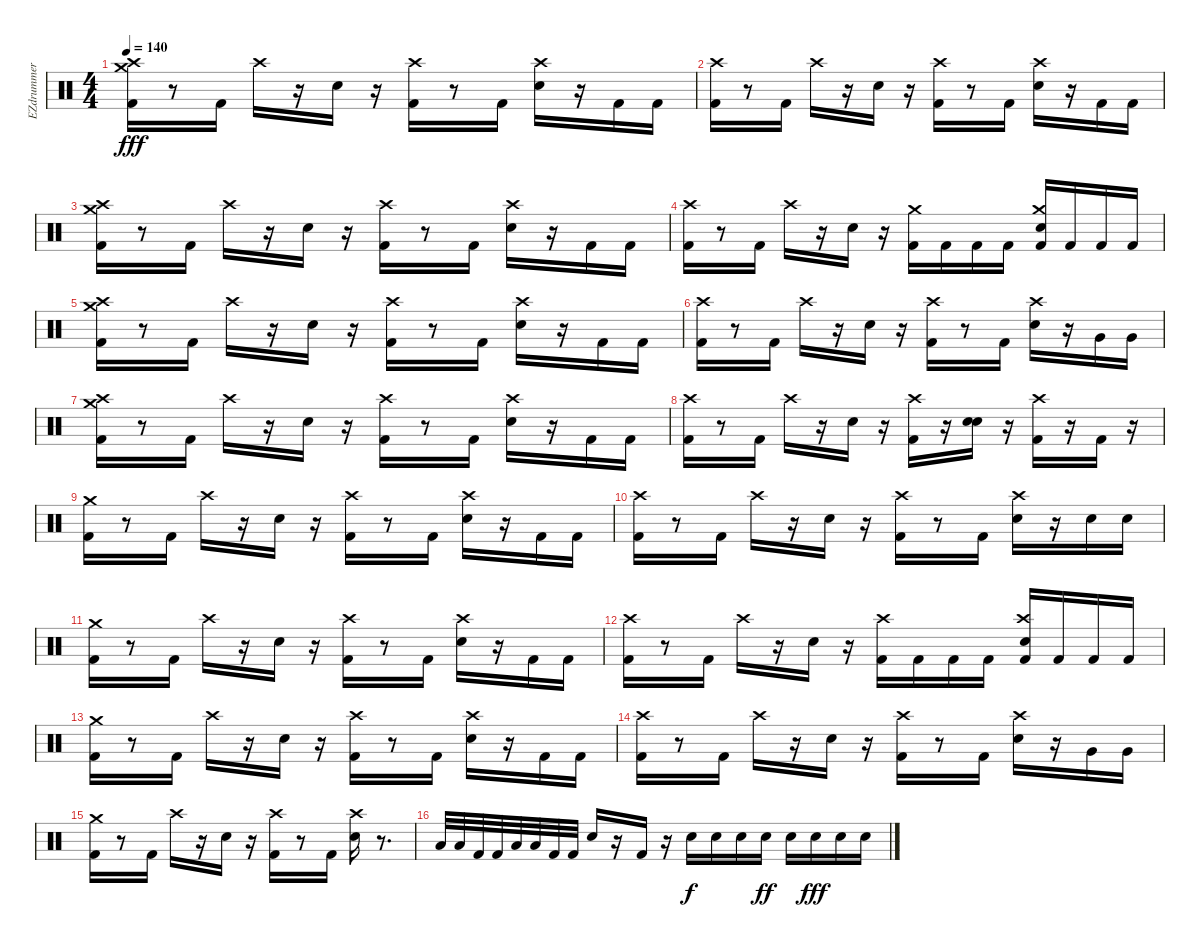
\track ("EZdrummer" "EZdrummer") {instrument percussion}
\staff {score}
\articulation defaults
\ts (4 4)
\tempo 140
\clef neutral
\ks c
("Kick (hit) 2" "Crash high (hit)" "Crash medium (hit)").16{dy fff} r.8 "Kick (hit) 2".16 "Crash high (hit)".16 r.16 "Snare (hit) 2".16 r.16 ("Kick (hit) 2" "Crash high (hit)").16 r.8 "Kick (hit) 2".16 ("Snare (hit) 2" "Crash high (hit)").16 r.16 "Kick (hit) 2".16 "Kick (hit) 2".16 |
("Kick (hit) 2" "Crash high (hit)").16 r.8 "Kick (hit) 2".16 "Crash high (hit)".16 r.16 "Snare (hit) 2".16 r.16 ("Kick (hit) 2" "Crash high (hit)").16 r.8 "Kick (hit) 2".16 ("Snare (hit) 2" "Crash high (hit)").16 r.16 "Kick (hit) 2".16 "Kick (hit) 2".16 |
("Kick (hit) 2" "Crash high (hit)" "Crash medium (hit)").16 r.8 "Kick (hit) 2".16 "Crash high (hit)".16 r.16 "Snare (hit) 2".16 r.16 ("Kick (hit) 2" "Crash high (hit)").16 r.8 "Kick (hit) 2".16 ("Snare (hit) 2" "Crash high (hit)").16 r.16 "Kick (hit) 2".16 "Kick (hit) 2".16 |
("Kick (hit) 2" "Crash high (hit)").16 r.8 "Kick (hit) 2".16 "Crash high (hit)".16 r.16 "Snare (hit) 2".16 r.16 ("Crash medium (hit)" "Kick (hit) 2").16 "Kick (hit) 2".16 "Kick (hit) 2".16 "Kick (hit) 2".16 ("Crash medium (hit)" "Kick (hit) 2" "Snare (hit) 2").16 "Kick (hit) 2".16 "Kick (hit) 2".16 "Kick (hit) 2".16 |
("Kick (hit) 2" "Crash high (hit)" "Crash medium (hit)").16 r.8 "Kick (hit) 2".16 "Crash high (hit)".16 r.16 "Snare (hit) 2".16 r.16 ("Kick (hit) 2" "Crash high (hit)").16 r.8 "Kick (hit) 2".16 ("Snare (hit) 2" "Crash high (hit)").16 r.16 "Kick (hit) 2".16 "Kick (hit) 2".16 |
("Kick (hit) 2" "Crash high (hit)").16 r.8 "Kick (hit) 2".16 "Crash high (hit)".16 r.16 "Snare (hit) 2".16 r.16 ("Kick (hit) 2" "Crash high (hit)").16 r.8 "Kick (hit) 2".16 ("Snare (hit) 2" "Crash high (hit)").16 r.16 "Very Low Tom (hit)".16 "Very Low Tom (hit)".16 |
("Kick (hit) 2" "Crash high (hit)" "Crash medium (hit)").16 r.8 "Kick (hit) 2".16 "Crash high (hit)".16 r.16 "Snare (hit) 2".16 r.16 ("Kick (hit) 2" "Crash high (hit)").16 r.8 "Kick (hit) 2".16 ("Snare (hit) 2" "Crash high (hit)").16 r.16 "Kick (hit) 2".16 "Kick (hit) 2".16 |
("Kick (hit) 2" "Crash high (hit)").16 r.8 "Kick (hit) 2".16 "Crash high (hit)".16 r.16 "Snare (hit) 2".16 r.16 ("Kick (hit) 2" "Crash high (hit)").16 r.16 ("Snare (hit) 2" "Snare (hit) 2").16 r.16 ("Kick (hit) 2" "Crash high (hit)").16 r.16 "Kick (hit) 2".16 r.16 |
("Kick (hit) 2" "Crash medium (hit)").16 r.8 "Kick (hit) 2".16 "Crash high (hit)".16 r.16 "Snare (hit) 2".16 r.16 ("Kick (hit) 2" "Crash high (hit)").16 r.8 "Kick (hit) 2".16 ("Snare (hit) 2" "Crash high (hit)").16 r.16 "Kick (hit) 2".16 "Kick (hit) 2".16 |
("Kick (hit) 2" "Crash high (hit)").16 r.8 "Kick (hit) 2".16 "Crash high (hit)".16 r.16 "Snare (hit) 2".16 r.16 ("Kick (hit) 2" "Crash high (hit)").16 r.8 "Kick (hit) 2".16 ("Snare (hit) 2" "Crash high (hit)").16 r.16 "Snare (hit) 2".16 "Snare (hit) 2".16 |
("Kick (hit) 2" "Crash medium (hit)").16 r.8 "Kick (hit) 2".16 "Crash high (hit)".16 r.16 "Snare (hit) 2".16 r.16 ("Kick (hit) 2" "Crash high (hit)").16 r.8 "Kick (hit) 2".16 ("Snare (hit) 2" "Crash high (hit)").16 r.16 "Kick (hit) 2".16 "Kick (hit) 2".16 |
("Kick (hit) 2" "Crash high (hit)").16 r.8 "Kick (hit) 2".16 "Crash high (hit)".16 r.16 "Snare (hit) 2".16 r.16 ("Kick (hit) 2" "Crash high (hit)").16 "Kick (hit) 2".16 "Kick (hit) 2".16 "Kick (hit) 2".16 ("Kick (hit) 2" "Snare (hit) 2" "Crash high (hit)").16 "Kick (hit) 2".16 "Kick (hit) 2".16 "Kick (hit) 2".16 |
("Kick (hit) 2" "Crash medium (hit)").16 r.8 "Kick (hit) 2".16 "Crash high (hit)".16 r.16 "Snare (hit) 2".16 r.16 ("Kick (hit) 2" "Crash high (hit)").16 r.8 "Kick (hit) 2".16 ("Snare (hit) 2" "Crash high (hit)").16 r.16 "Kick (hit) 2".16 "Kick (hit) 2".16 |
("Kick (hit) 2" "Crash high (hit)").16 r.8 "Kick (hit) 2".16 "Crash high (hit)".16 r.16 "Snare (hit) 2".16 r.16 ("Kick (hit) 2" "Crash high (hit)").16 r.8 "Kick (hit) 2".16 ("Snare (hit) 2" "Crash high (hit)").16 r.16 "Very Low Tom (hit)".16 "Very Low Tom (hit)".16 |
("Kick (hit) 2" "Crash medium (hit)").16 r.8 "Kick (hit) 2".16 "Crash high (hit)".16 r.16 "Snare (hit) 2".16 r.16 ("Kick (hit) 2" "Crash high (hit)").16 r.8 "Kick (hit) 2".16 ("Snare (hit) 2" "Crash high (hit)").16 r.8{d} |
"Low Tom (hit)".32 "Low Tom (hit)".32 "Kick (hit) 2".32 "Kick (hit) 2".32 "Low Tom (hit)".32 "Low Tom (hit)".32 "Kick (hit) 2".32 "Kick (hit) 2".32 "Snare (hit) 2".16 r.16 "Kick (hit) 2".16 r.16 "Snare (hit) 2".16{dy f} "Snare (hit) 2".16 "Snare (hit) 2".16 "Snare (hit) 2".16{dy ff} "Snare (hit) 2".16 "Snare (hit) 2".16{dy fff} "Snare (hit) 2".16 "Snare (hit) 2".16
